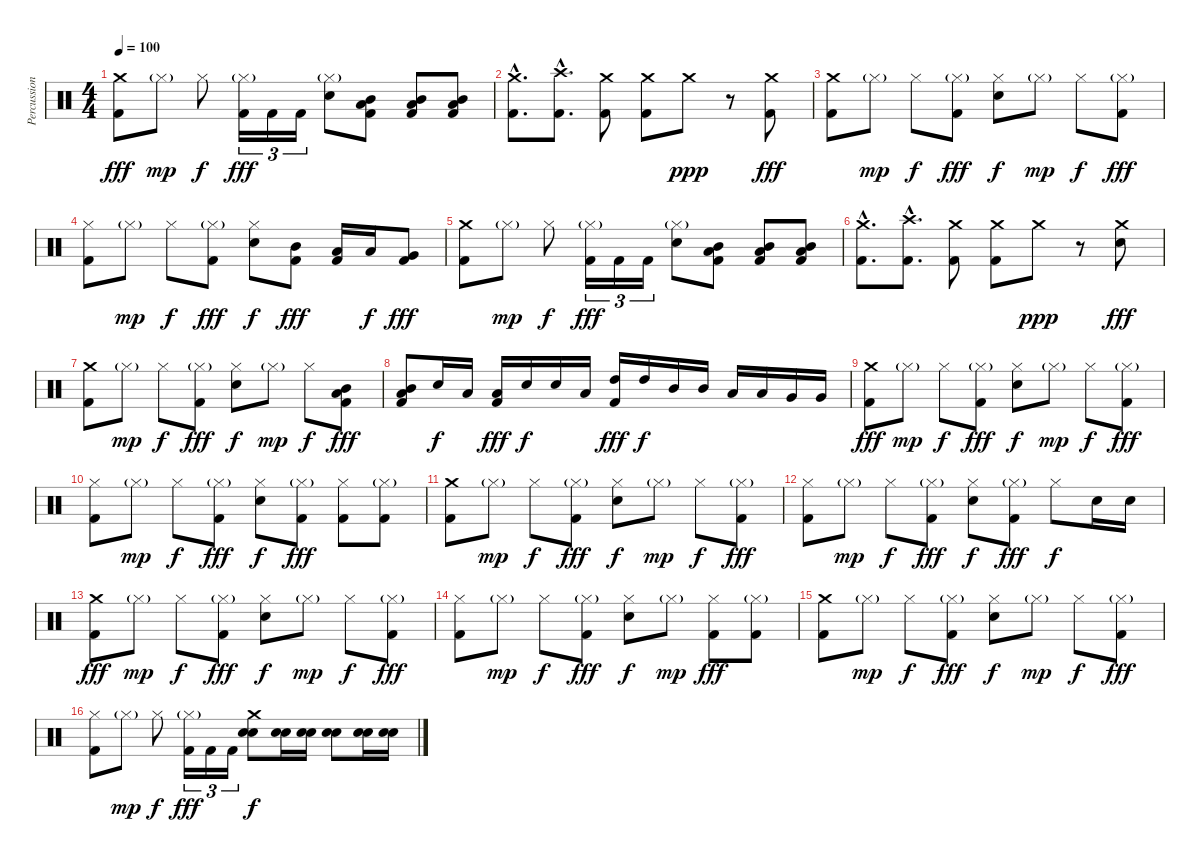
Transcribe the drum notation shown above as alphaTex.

\track ("Percussion" "Percussion") {instrument percussion}
\staff {score}
\articulation defaults
\ts (4 4)
\tempo 100
\clef neutral
\ks c
("Crash medium (hit)" "Kick (hit) 2").8{dy fff} "Hi-Hat (closed)"{g}.8{dy mp} "Hi-Hat (closed)".8{dy f} ("Hi-Hat (closed)"{g} "Kick (hit) 2").16{tu (3 2) dy fff} "Kick (hit) 2".16{tu (3 2)} "Kick (hit) 2".16{tu (3 2)} ("Hi-Hat (closed)"{g} "Electric Snare (hit)").8 ("Mid Tom (hit)" "Low Tom (hit)" "Kick (hit) 2").8 ("Mid Tom (hit)" "Low Tom (hit)" "Kick (hit) 2").8 ("Mid Tom (hit)" "Low Tom (hit)" "Kick (hit) 2").8 |
("Crash medium (hit)"{hac} "Kick (hit) 2"{hac}).8{d} ("Crash high (hit)"{hac} "Kick (hit) 2"{hac}).8{d} ("Crash medium (hit)" "Kick (hit) 2").8 ("Crash medium (hit)" "Kick (hit) 2").8 "Crash medium (hit)".8{dy ppp} r.8 ("Crash medium (hit)" "Kick (hit) 2").8{dy fff} |
("Crash medium (hit)" "Kick (hit) 2").8 "Hi-Hat (closed)"{g}.8{dy mp} "Hi-Hat (closed)".8{dy f} ("Hi-Hat (closed)"{g} "Kick (hit) 2").8{dy fff} ("Hi-Hat (closed)" "Electric Snare (hit)").8{dy f} "Hi-Hat (closed)"{g}.8{dy mp} "Hi-Hat (closed)".8{dy f} ("Hi-Hat (closed)"{g} "Kick (hit) 2").8{dy fff} |
("Hi-Hat (closed)" "Kick (hit) 2").8 "Hi-Hat (closed)"{g}.8{dy mp} "Hi-Hat (closed)".8{dy f} ("Hi-Hat (closed)"{g} "Kick (hit) 2").8{dy fff} ("Hi-Hat (closed)" "Electric Snare (hit)").8{dy f} ("Mid Tom (hit)" "Kick (hit) 2").8{dy fff} ("Low Tom (hit)" "Kick (hit) 2").16 "Low Tom (hit)".16{dy f} ("Very Low Tom (hit)" "Kick (hit) 2").8{dy fff} |
("Crash medium (hit)" "Kick (hit) 2").8 "Hi-Hat (closed)"{g}.8{dy mp} "Hi-Hat (closed)".8{dy f} ("Hi-Hat (closed)"{g} "Kick (hit) 2").16{tu (3 2) dy fff} "Kick (hit) 2".16{tu (3 2)} "Kick (hit) 2".16{tu (3 2)} ("Hi-Hat (closed)"{g} "Electric Snare (hit)").8 ("Mid Tom (hit)" "Low Tom (hit)" "Kick (hit) 2").8 ("Mid Tom (hit)" "Low Tom (hit)" "Kick (hit) 2").8 ("Mid Tom (hit)" "Low Tom (hit)" "Kick (hit) 2").8 |
("Crash medium (hit)"{hac} "Kick (hit) 2"{hac}).8{d} ("Crash high (hit)"{hac} "Kick (hit) 2"{hac}).8{d} ("Crash medium (hit)" "Kick (hit) 2").8 ("Crash medium (hit)" "Kick (hit) 2").8 "Crash medium (hit)".8{dy ppp} r.8 ("Crash medium (hit)" "Electric Snare (hit)").8{dy fff} |
("Crash medium (hit)" "Kick (hit) 2").8 "Hi-Hat (closed)"{g}.8{dy mp} "Hi-Hat (closed)".8{dy f} ("Hi-Hat (closed)"{g} "Kick (hit) 2").8{dy fff} ("Hi-Hat (closed)" "Electric Snare (hit)").8{dy f} "Hi-Hat (closed)"{g}.8{dy mp} "Hi-Hat (closed)".8{dy f} ("Mid Tom (hit)" "Low Tom (hit)" "Kick (hit) 2").8{dy fff} |
("Mid Tom (hit)" "Low Tom (hit)" "Kick (hit) 2").8 "Electric Snare (hit)".16{dy f} "Low Tom (hit)".16 ("Low Tom (hit)" "Kick (hit) 2").16{dy fff} "Electric Snare (hit)".16{dy f} "Electric Snare (hit)".16 "Low Tom (hit)".16 ("High Tom (hit)" "Kick (hit) 2").16{dy fff} "High Tom (hit)".16{dy f} "Mid Tom (hit)".16 "Mid Tom (hit)".16 "Low Tom (hit)".16 "Low Tom (hit)".16 "Very Low Tom (hit)".16 "Very Low Tom (hit)".16 |
("Crash medium (hit)" "Kick (hit) 2").8{dy fff} "Hi-Hat (closed)"{g}.8{dy mp} "Hi-Hat (closed)".8{dy f} ("Hi-Hat (closed)"{g} "Kick (hit) 2").8{dy fff} ("Hi-Hat (closed)" "Electric Snare (hit)").8{dy f} "Hi-Hat (closed)"{g}.8{dy mp} "Hi-Hat (closed)".8{dy f} ("Hi-Hat (closed)"{g} "Kick (hit) 2").8{dy fff} |
("Hi-Hat (closed)" "Kick (hit) 2").8 "Hi-Hat (closed)"{g}.8{dy mp} "Hi-Hat (closed)".8{dy f} ("Hi-Hat (closed)"{g} "Kick (hit) 2").8{dy fff} ("Hi-Hat (closed)" "Electric Snare (hit)").8{dy f} ("Hi-Hat (closed)"{g} "Kick (hit) 2").8{dy fff} ("Hi-Hat (closed)" "Kick (hit) 2").8 ("Hi-Hat (closed)"{g} "Kick (hit) 2").8 |
("Crash medium (hit)" "Kick (hit) 2").8 "Hi-Hat (closed)"{g}.8{dy mp} "Hi-Hat (closed)".8{dy f} ("Hi-Hat (closed)"{g} "Kick (hit) 2").8{dy fff} ("Hi-Hat (closed)" "Electric Snare (hit)").8{dy f} "Hi-Hat (closed)"{g}.8{dy mp} "Hi-Hat (closed)".8{dy f} ("Hi-Hat (closed)"{g} "Kick (hit) 2").8{dy fff} |
("Hi-Hat (closed)" "Kick (hit) 2").8 "Hi-Hat (closed)"{g}.8{dy mp} "Hi-Hat (closed)".8{dy f} ("Hi-Hat (closed)"{g} "Kick (hit) 2").8{dy fff} ("Hi-Hat (closed)" "Electric Snare (hit)").8{dy f} ("Hi-Hat (closed)"{g} "Kick (hit) 2").8{dy fff} "Hi-Hat (closed)".8{dy f} "Electric Snare (hit)".16 "Electric Snare (hit)".16 |
("Crash medium (hit)" "Kick (hit) 2").8{dy fff} "Hi-Hat (closed)"{g}.8{dy mp} "Hi-Hat (closed)".8{dy f} ("Hi-Hat (closed)"{g} "Kick (hit) 2").8{dy fff} ("Hi-Hat (closed)" "Electric Snare (hit)").8{dy f} "Hi-Hat (closed)"{g}.8{dy mp} "Hi-Hat (closed)".8{dy f} ("Hi-Hat (closed)"{g} "Kick (hit) 2").8{dy fff} |
("Hi-Hat (closed)" "Kick (hit) 2").8 "Hi-Hat (closed)"{g}.8{dy mp} "Hi-Hat (closed)".8{dy f} ("Hi-Hat (closed)"{g} "Kick (hit) 2").8{dy fff} ("Hi-Hat (closed)" "Electric Snare (hit)").8{dy f} "Hi-Hat (closed)"{g}.8{dy mp} ("Hi-Hat (closed)" "Kick (hit) 2").8{dy fff} ("Hi-Hat (closed)"{g} "Kick (hit) 2").8 |
("Crash medium (hit)" "Kick (hit) 2").8 "Hi-Hat (closed)"{g}.8{dy mp} "Hi-Hat (closed)".8{dy f} ("Hi-Hat (closed)"{g} "Kick (hit) 2").8{dy fff} ("Hi-Hat (closed)" "Electric Snare (hit)").8{dy f} "Hi-Hat (closed)"{g}.8{dy mp} "Hi-Hat (closed)".8{dy f} ("Hi-Hat (closed)"{g} "Kick (hit) 2").8{dy fff} |
("Hi-Hat (closed)" "Kick (hit) 2").8 "Hi-Hat (closed)"{g}.8{dy mp} "Hi-Hat (closed)".8{dy f} ("Hi-Hat (closed)"{g} "Kick (hit) 2").16{tu (3 2) dy fff} "Kick (hit) 2".16{tu (3 2)} "Kick (hit) 2".16{tu (3 2)} ("Crash medium (hit)" "Snare (hit) 2" "Electric Snare (hit)").8{dy f} ("Snare (hit) 2" "Electric Snare (hit)").16 ("Snare (hit) 2" "Electric Snare (hit)").16 ("Snare (hit) 2" "Electric Snare (hit)").8 ("Snare (hit) 2" "Electric Snare (hit)").16 ("Snare (hit) 2" "Electric Snare (hit)").16
